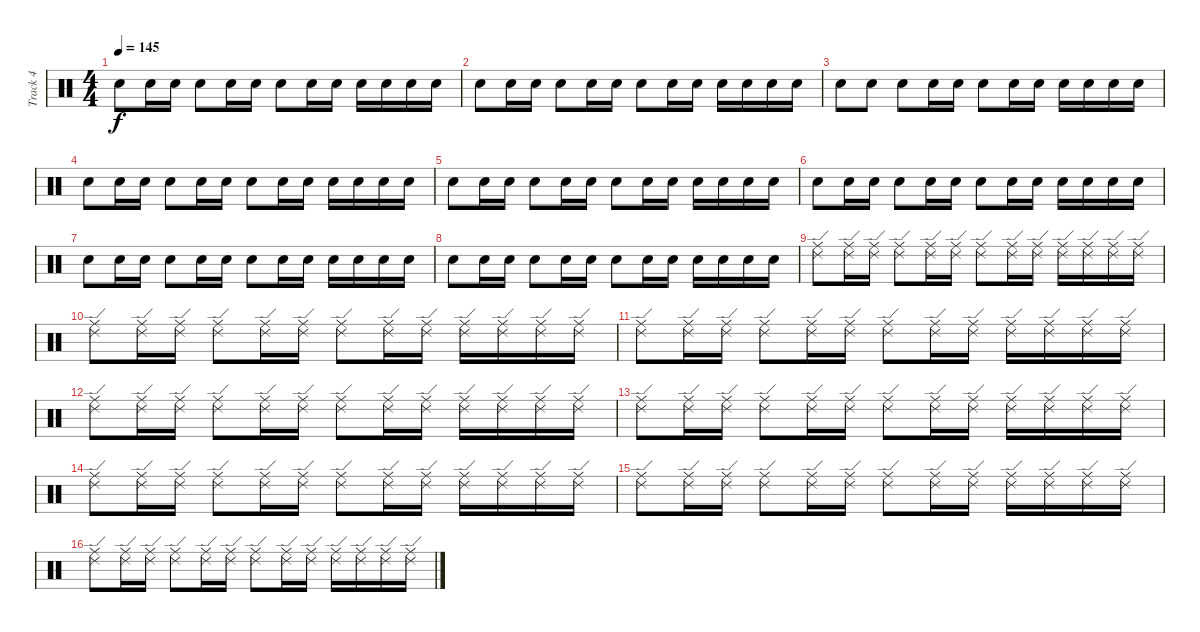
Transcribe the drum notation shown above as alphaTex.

\track ("Track 4" "Track 4") {instrument percussion}
\staff {score}
\articulation defaults
\ts (4 4)
\tempo 145
\clef neutral
\ks c "Snare (hit) 2".8{dy f} "Snare (hit) 2".16 "Snare (hit) 2".16 "Snare (hit) 2".8 "Snare (hit) 2".16 "Snare (hit) 2".16 "Snare (hit) 2".8 "Snare (hit) 2".16 "Snare (hit) 2".16 "Snare (hit) 2".16 "Snare (hit) 2".16 "Snare (hit) 2".16 "Snare (hit) 2".16
|
"Snare (hit) 2".8 "Snare (hit) 2".16 "Snare (hit) 2".16 "Snare (hit) 2".8 "Snare (hit) 2".16 "Snare (hit) 2".16 "Snare (hit) 2".8 "Snare (hit) 2".16 "Snare (hit) 2".16 "Snare (hit) 2".16 "Snare (hit) 2".16 "Snare (hit) 2".16 "Snare (hit) 2".16 |
"Snare (hit) 2".8 "Snare (hit) 2".8 "Snare (hit) 2".8 "Snare (hit) 2".16 "Snare (hit) 2".16 "Snare (hit) 2".8 "Snare (hit) 2".16 "Snare (hit) 2".16 "Snare (hit) 2".16 "Snare (hit) 2".16 "Snare (hit) 2".16 "Snare (hit) 2".16 |
"Snare (hit) 2".8 "Snare (hit) 2".16 "Snare (hit) 2".16 "Snare (hit) 2".8 "Snare (hit) 2".16 "Snare (hit) 2".16 "Snare (hit) 2".8 "Snare (hit) 2".16 "Snare (hit) 2".16 "Snare (hit) 2".16 "Snare (hit) 2".16 "Snare (hit) 2".16 "Snare (hit) 2".16 |
"Snare (hit) 2".8 "Snare (hit) 2".16 "Snare (hit) 2".16 "Snare (hit) 2".8 "Snare (hit) 2".16 "Snare (hit) 2".16 "Snare (hit) 2".8 "Snare (hit) 2".16 "Snare (hit) 2".16 "Snare (hit) 2".16 "Snare (hit) 2".16 "Snare (hit) 2".16 "Snare (hit) 2".16 |
"Snare (hit) 2".8 "Snare (hit) 2".16 "Snare (hit) 2".16 "Snare (hit) 2".8 "Snare (hit) 2".16 "Snare (hit) 2".16 "Snare (hit) 2".8 "Snare (hit) 2".16 "Snare (hit) 2".16 "Snare (hit) 2".16 "Snare (hit) 2".16 "Snare (hit) 2".16 "Snare (hit) 2".16 |
"Snare (hit) 2".8 "Snare (hit) 2".16 "Snare (hit) 2".16 "Snare (hit) 2".8 "Snare (hit) 2".16 "Snare (hit) 2".16 "Snare (hit) 2".8 "Snare (hit) 2".16 "Snare (hit) 2".16 "Snare (hit) 2".16 "Snare (hit) 2".16 "Snare (hit) 2".16 "Snare (hit) 2".16 |
"Snare (hit) 2".8 "Snare (hit) 2".16 "Snare (hit) 2".16 "Snare (hit) 2".8 "Snare (hit) 2".16 "Snare (hit) 2".16 "Snare (hit) 2".8 "Snare (hit) 2".16 "Snare (hit) 2".16 "Snare (hit) 2".16 "Snare (hit) 2".16 "Snare (hit) 2".16 "Snare (hit) 2".16 |
("Ride (middle)" "Ride (edge) 2").8 ("Ride (middle)" "Ride (edge) 2").16 ("Ride (middle)" "Ride (edge) 2").16 ("Ride (middle)" "Ride (edge) 2").8 ("Ride (middle)" "Ride (edge) 2").16 ("Ride (middle)" "Ride (edge) 2").16 ("Ride (middle)" "Ride (edge) 2").8 ("Ride (middle)" "Ride (edge) 2").16 ("Ride (middle)" "Ride (edge) 2").16 ("Ride (middle)" "Ride (edge) 2").16 ("Ride (middle)" "Ride (edge) 2").16 ("Ride (middle)" "Ride (edge) 2").16 ("Ride (middle)" "Ride (edge) 2").16 |
("Ride (middle)" "Ride (edge) 2").8 ("Ride (middle)" "Ride (edge) 2").16 ("Ride (middle)" "Ride (edge) 2").16 ("Ride (middle)" "Ride (edge) 2").8 ("Ride (middle)" "Ride (edge) 2").16 ("Ride (middle)" "Ride (edge) 2").16 ("Ride (middle)" "Ride (edge) 2").8 ("Ride (middle)" "Ride (edge) 2").16 ("Ride (middle)" "Ride (edge) 2").16 ("Ride (middle)" "Ride (edge) 2").16 ("Ride (middle)" "Ride (edge) 2").16 ("Ride (middle)" "Ride (edge) 2").16 ("Ride (middle)" "Ride (edge) 2").16 |
("Ride (middle)" "Ride (edge) 2").8 ("Ride (middle)" "Ride (edge) 2").16 ("Ride (middle)" "Ride (edge) 2").16 ("Ride (middle)" "Ride (edge) 2").8 ("Ride (middle)" "Ride (edge) 2").16 ("Ride (middle)" "Ride (edge) 2").16 ("Ride (middle)" "Ride (edge) 2").8 ("Ride (middle)" "Ride (edge) 2").16 ("Ride (middle)" "Ride (edge) 2").16 ("Ride (middle)" "Ride (edge) 2").16 ("Ride (middle)" "Ride (edge) 2").16 ("Ride (middle)" "Ride (edge) 2").16 ("Ride (middle)" "Ride (edge) 2").16 |
("Ride (middle)" "Ride (edge) 2").8 ("Ride (middle)" "Ride (edge) 2").16 ("Ride (middle)" "Ride (edge) 2").16 ("Ride (middle)" "Ride (edge) 2").8 ("Ride (middle)" "Ride (edge) 2").16 ("Ride (middle)" "Ride (edge) 2").16 ("Ride (middle)" "Ride (edge) 2").8 ("Ride (middle)" "Ride (edge) 2").16 ("Ride (middle)" "Ride (edge) 2").16 ("Ride (middle)" "Ride (edge) 2").16 ("Ride (middle)" "Ride (edge) 2").16 ("Ride (middle)" "Ride (edge) 2").16 ("Ride (middle)" "Ride (edge) 2").16 |
("Ride (middle)" "Ride (edge) 2").8 ("Ride (middle)" "Ride (edge) 2").16 ("Ride (middle)" "Ride (edge) 2").16 ("Ride (middle)" "Ride (edge) 2").8 ("Ride (middle)" "Ride (edge) 2").16 ("Ride (middle)" "Ride (edge) 2").16 ("Ride (middle)" "Ride (edge) 2").8 ("Ride (middle)" "Ride (edge) 2").16 ("Ride (middle)" "Ride (edge) 2").16 ("Ride (middle)" "Ride (edge) 2").16 ("Ride (middle)" "Ride (edge) 2").16 ("Ride (middle)" "Ride (edge) 2").16 ("Ride (middle)" "Ride (edge) 2").16 |
("Ride (middle)" "Ride (edge) 2").8 ("Ride (middle)" "Ride (edge) 2").16 ("Ride (middle)" "Ride (edge) 2").16 ("Ride (middle)" "Ride (edge) 2").8 ("Ride (middle)" "Ride (edge) 2").16 ("Ride (middle)" "Ride (edge) 2").16 ("Ride (middle)" "Ride (edge) 2").8 ("Ride (middle)" "Ride (edge) 2").16 ("Ride (middle)" "Ride (edge) 2").16 ("Ride (middle)" "Ride (edge) 2").16 ("Ride (middle)" "Ride (edge) 2").16 ("Ride (middle)" "Ride (edge) 2").16 ("Ride (middle)" "Ride (edge) 2").16 |
("Ride (middle)" "Ride (edge) 2").8 ("Ride (middle)" "Ride (edge) 2").16 ("Ride (middle)" "Ride (edge) 2").16 ("Ride (middle)" "Ride (edge) 2").8 ("Ride (middle)" "Ride (edge) 2").16 ("Ride (middle)" "Ride (edge) 2").16 ("Ride (middle)" "Ride (edge) 2").8 ("Ride (middle)" "Ride (edge) 2").16 ("Ride (middle)" "Ride (edge) 2").16 ("Ride (middle)" "Ride (edge) 2").16 ("Ride (middle)" "Ride (edge) 2").16 ("Ride (middle)" "Ride (edge) 2").16 ("Ride (middle)" "Ride (edge) 2").16 |
("Ride (middle)" "Ride (edge) 2").8 ("Ride (middle)" "Ride (edge) 2").16 ("Ride (middle)" "Ride (edge) 2").16 ("Ride (middle)" "Ride (edge) 2").8 ("Ride (middle)" "Ride (edge) 2").16 ("Ride (middle)" "Ride (edge) 2").16 ("Ride (middle)" "Ride (edge) 2").8 ("Ride (middle)" "Ride (edge) 2").16 ("Ride (middle)" "Ride (edge) 2").16 ("Ride (middle)" "Ride (edge) 2").16 ("Ride (middle)" "Ride (edge) 2").16 ("Ride (middle)" "Ride (edge) 2").16 ("Ride (middle)" "Ride (edge) 2").16
